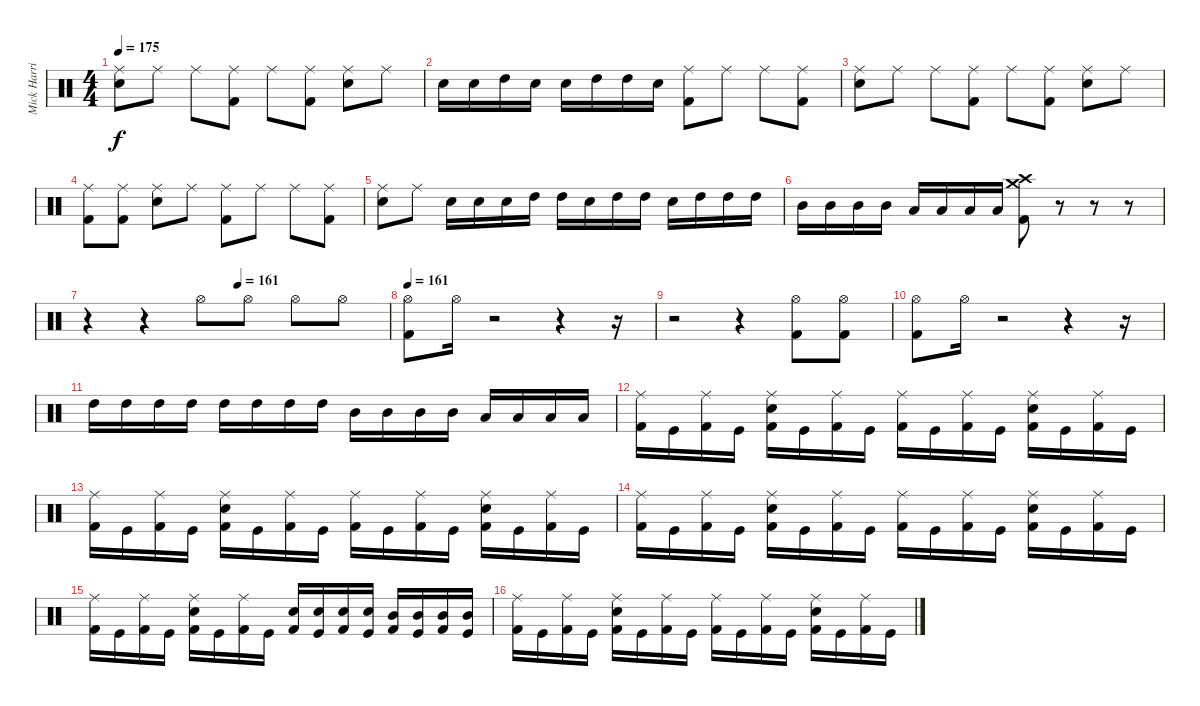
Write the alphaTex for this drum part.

\track ("Mick Harris (Drums)" "Mick Harri") {instrument percussion}
\staff {score}
\articulation defaults
\ts (4 4)
\tempo 175
\clef neutral
\ks c
("Electric Snare (hit)" "Ride (middle)").8{dy f} "Ride (middle)".8 "Ride (middle)".8 ("Kick (hit) 2" "Ride (middle)").8 "Ride (middle)".8 ("Kick (hit) 2" "Ride (middle)").8 ("Electric Snare (hit)" "Ride (middle)").8 "Ride (middle)".8 |
"Electric Snare (hit)".16 "Electric Snare (hit)".16 "High Tom (hit)".16 "Electric Snare (hit)".16 "Electric Snare (hit)".16 "High Tom (hit)".16 "High Tom (hit)".16 "Electric Snare (hit)".16 ("Kick (hit) 2" "Ride (middle)").8 "Ride (middle)".8 "Ride (middle)".8 ("Kick (hit) 2" "Ride (middle)").8 |
("Electric Snare (hit)" "Ride (middle)").8 "Ride (middle)".8 "Ride (middle)".8 ("Kick (hit) 2" "Ride (middle)").8 "Ride (middle)".8 ("Kick (hit) 2" "Ride (middle)").8 ("Electric Snare (hit)" "Ride (middle)").8 "Ride (middle)".8 |
("Kick (hit) 2" "Ride (middle)").8 ("Kick (hit) 2" "Ride (middle)").8 ("Electric Snare (hit)" "Ride (middle)").8 "Ride (middle)".8 ("Kick (hit) 2" "Ride (middle)").8 "Ride (middle)".8 "Ride (middle)".8 ("Kick (hit) 2" "Ride (middle)").8 |
("Electric Snare (hit)" "Ride (middle)").8 "Ride (middle)".8 "Electric Snare (hit)".16 "Electric Snare (hit)".16 "Electric Snare (hit)".16 "High Tom (hit)".16 "High Tom (hit)".16 "Electric Snare (hit)".16 "High Tom (hit)".16 "High Tom (hit)".16 "Electric Snare (hit)".16 "High Tom (hit)".16 "High Tom (hit)".16 "High Tom (hit)".16 |
"Mid Tom (hit)".16 "Mid Tom (hit)".16 "Mid Tom (hit)".16 "Mid Tom (hit)".16 "Low Tom (hit)".16 "Low Tom (hit)".16 "Low Tom (hit)".16 "Low Tom (hit)".16 ("Kick (hit) 2" "Crash high (hit)" "Crash medium (hit)").8 r.8 r.8 r.8 |
\tempo (161 0.5)
r.4 r.4 "Hi-Hat (open)".8 "Hi-Hat (open)".8 "Hi-Hat (open)".8 "Hi-Hat (open)".8 |
\tempo 161
("Kick (hit) 2" "Hi-Hat (open)").8 "Hi-Hat (open)".16{volume 0} r.2 r.4 r.16 |
r.2 r.4 ("Kick (hit) 2" "Hi-Hat (open)").8{volume 16} ("Kick (hit) 2" "Hi-Hat (open)").8 |
("Kick (hit) 2" "Hi-Hat (open)").8 "Hi-Hat (open)".16{volume 0} r.2 r.4 r.16 |
"High Tom (hit)".16{volume 16} "High Tom (hit)".16 "High Tom (hit)".16 "High Tom (hit)".16 "High Tom (hit)".16 "High Tom (hit)".16 "High Tom (hit)".16 "High Tom (hit)".16 "Mid Tom (hit)".16 "Mid Tom (hit)".16 "Mid Tom (hit)".16 "Mid Tom (hit)".16 "Low Tom (hit)".16 "Low Tom (hit)".16 "Low Tom (hit)".16 "Low Tom (hit)".16 |
("Kick (hit) 2" "Ride (middle)").16 "Kick (hit)".16 ("Kick (hit) 2" "Ride (middle)").16 "Kick (hit)".16 ("Kick (hit) 2" "Ride (middle)" "Electric Snare (hit)").16 "Kick (hit)".16 ("Kick (hit) 2" "Ride (middle)").16 "Kick (hit)".16 ("Kick (hit) 2" "Ride (middle)").16 "Kick (hit)".16 ("Kick (hit) 2" "Ride (middle)").16 "Kick (hit)".16 ("Kick (hit) 2" "Ride (middle)" "Electric Snare (hit)").16 "Kick (hit)".16 ("Kick (hit) 2" "Ride (middle)").16 "Kick (hit)".16 |
("Kick (hit) 2" "Ride (middle)").16 "Kick (hit)".16 ("Kick (hit) 2" "Ride (middle)").16 "Kick (hit)".16 ("Kick (hit) 2" "Ride (middle)" "Electric Snare (hit)").16 "Kick (hit)".16 ("Kick (hit) 2" "Ride (middle)").16 "Kick (hit)".16 ("Kick (hit) 2" "Ride (middle)").16 "Kick (hit)".16 ("Kick (hit) 2" "Ride (middle)").16 "Kick (hit)".16 ("Kick (hit) 2" "Ride (middle)" "Electric Snare (hit)").16 "Kick (hit)".16 ("Kick (hit) 2" "Ride (middle)").16 "Kick (hit)".16 |
("Kick (hit) 2" "Ride (middle)").16 "Kick (hit)".16 ("Kick (hit) 2" "Ride (middle)").16 "Kick (hit)".16 ("Kick (hit) 2" "Ride (middle)" "Electric Snare (hit)").16 "Kick (hit)".16 ("Kick (hit) 2" "Ride (middle)").16 "Kick (hit)".16 ("Kick (hit) 2" "Ride (middle)").16 "Kick (hit)".16 ("Kick (hit) 2" "Ride (middle)").16 "Kick (hit)".16 ("Kick (hit) 2" "Ride (middle)" "Electric Snare (hit)").16 "Kick (hit)".16 ("Kick (hit) 2" "Ride (middle)").16 "Kick (hit)".16 |
("Kick (hit) 2" "Ride (middle)").16 "Kick (hit)".16 ("Kick (hit) 2" "Ride (middle)").16 "Kick (hit)".16 ("Kick (hit) 2" "Ride (middle)" "Electric Snare (hit)").16 "Kick (hit)".16 ("Kick (hit) 2" "Ride (middle)").16 "Kick (hit)".16 ("Kick (hit) 2" "Electric Snare (hit)").16 ("Kick (hit)" "Electric Snare (hit)").16 ("Kick (hit) 2" "Electric Snare (hit)").16 ("Kick (hit)" "Electric Snare (hit)").16 ("Kick (hit) 2" "Mid Tom (hit)").16 ("Kick (hit)" "Mid Tom (hit)").16 ("Kick (hit) 2" "Mid Tom (hit)").16 ("Kick (hit)" "Mid Tom (hit)").16 |
("Kick (hit) 2" "Ride (middle)").16 "Kick (hit)".16 ("Kick (hit) 2" "Ride (middle)").16 "Kick (hit)".16 ("Kick (hit) 2" "Ride (middle)" "Electric Snare (hit)").16 "Kick (hit)".16 ("Kick (hit) 2" "Ride (middle)").16 "Kick (hit)".16 ("Kick (hit) 2" "Ride (middle)").16 "Kick (hit)".16 ("Kick (hit) 2" "Ride (middle)").16 "Kick (hit)".16 ("Kick (hit) 2" "Ride (middle)" "Electric Snare (hit)").16 "Kick (hit)".16 ("Kick (hit) 2" "Ride (middle)").16 "Kick (hit)".16
